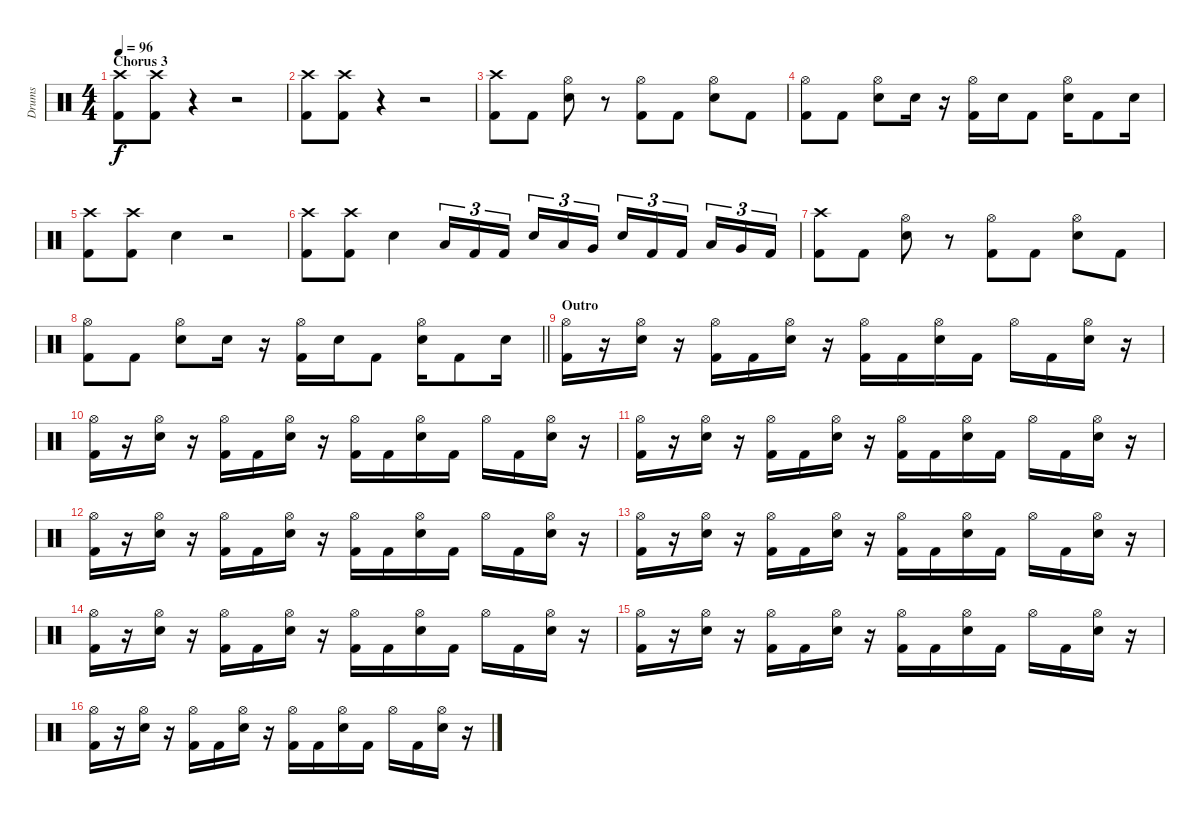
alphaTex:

\track ("Drums" "Drums") {instrument percussion}
\staff {score}
\articulation defaults
\ts (4 4)
\section ("" "Chorus 3")
\tempo 96
\clef neutral
\ks c
("Crash high (hit)" "Kick (hit) 2").8{dy f} ("Crash high (hit)" "Kick (hit) 2").8 r.4 r.2 |
("Crash high (hit)" "Kick (hit) 2").8 ("Crash high (hit)" "Kick (hit) 2").8 r.4 r.2 |
("Crash high (hit)" "Kick (hit) 2").8 "Kick (hit) 2".8 ("Hi-Hat (open)" "Electric Snare (hit)").8 r.8 ("Hi-Hat (open)" "Kick (hit) 2").8 "Kick (hit) 2".8 ("Hi-Hat (open)" "Electric Snare (hit)").8 "Kick (hit) 2".8 |
("Hi-Hat (open)" "Kick (hit) 2").8 "Kick (hit) 2".8 ("Hi-Hat (open)" "Electric Snare (hit)").8 "Electric Snare (hit)".16 r.16 ("Hi-Hat (open)" "Kick (hit) 2").16 "Electric Snare (hit)".16 "Kick (hit) 2".8 ("Hi-Hat (open)" "Electric Snare (hit)").16 "Kick (hit) 2".8 "Electric Snare (hit)".16 |
("Crash high (hit)" "Kick (hit) 2").8 ("Crash high (hit)" "Kick (hit) 2").8 "Electric Snare (hit)".4 r.2 |
("Crash high (hit)" "Kick (hit) 2").8 ("Crash high (hit)" "Kick (hit) 2").8 "Electric Snare (hit)".4 "Low Tom (hit)".16{tu (3 2)} "Kick (hit) 2".16{tu (3 2)} "Kick (hit) 2".16{tu (3 2) beam splitsecondary} "Electric Snare (hit)".16{tu (3 2)} "Low Tom (hit)".16{tu (3 2)} "Very Low Tom (hit)".16{tu (3 2)} "Electric Snare (hit)".16{tu (3 2)} "Kick (hit) 2".16{tu (3 2)} "Kick (hit) 2".16{tu (3 2) beam splitsecondary} "Low Tom (hit)".16{tu (3 2)} "Very Low Tom (hit)".16{tu (3 2)} "Kick (hit) 2".16{tu (3 2)} |
("Crash high (hit)" "Kick (hit) 2").8 "Kick (hit) 2".8 ("Hi-Hat (open)" "Electric Snare (hit)").8 r.8 ("Hi-Hat (open)" "Kick (hit) 2").8 "Kick (hit) 2".8 ("Hi-Hat (open)" "Electric Snare (hit)").8 "Kick (hit) 2".8 |
\barLineRight lightlight
("Hi-Hat (open)" "Kick (hit) 2").8 "Kick (hit) 2".8 ("Hi-Hat (open)" "Electric Snare (hit)").8 "Electric Snare (hit)".16 r.16 ("Hi-Hat (open)" "Kick (hit) 2").16 "Electric Snare (hit)".16 "Kick (hit) 2".8 ("Hi-Hat (open)" "Electric Snare (hit)").16 "Kick (hit) 2".8 "Electric Snare (hit)".16 |
\section ("" "Outro")
("Hi-Hat (open)" "Kick (hit) 2").16 r.16 ("Hi-Hat (open)" "Electric Snare (hit)").16 r.16 ("Hi-Hat (open)" "Kick (hit) 2").16 "Kick (hit) 2".16 ("Hi-Hat (open)" "Electric Snare (hit)").16 r.16 ("Hi-Hat (open)" "Kick (hit) 2").16 "Kick (hit) 2".16 ("Hi-Hat (open)" "Electric Snare (hit)").16 "Kick (hit) 2".16 "Hi-Hat (open)".16 "Kick (hit) 2".16 ("Hi-Hat (open)" "Electric Snare (hit)").16 r.16 |
("Hi-Hat (open)" "Kick (hit) 2").16 r.16 ("Hi-Hat (open)" "Electric Snare (hit)").16 r.16 ("Hi-Hat (open)" "Kick (hit) 2").16 "Kick (hit) 2".16 ("Hi-Hat (open)" "Electric Snare (hit)").16 r.16 ("Hi-Hat (open)" "Kick (hit) 2").16 "Kick (hit) 2".16 ("Hi-Hat (open)" "Electric Snare (hit)").16 "Kick (hit) 2".16 "Hi-Hat (open)".16 "Kick (hit) 2".16 ("Hi-Hat (open)" "Electric Snare (hit)").16 r.16 |
("Hi-Hat (open)" "Kick (hit) 2").16 r.16 ("Hi-Hat (open)" "Electric Snare (hit)").16 r.16 ("Hi-Hat (open)" "Kick (hit) 2").16 "Kick (hit) 2".16 ("Hi-Hat (open)" "Electric Snare (hit)").16 r.16 ("Hi-Hat (open)" "Kick (hit) 2").16 "Kick (hit) 2".16 ("Hi-Hat (open)" "Electric Snare (hit)").16 "Kick (hit) 2".16 "Hi-Hat (open)".16 "Kick (hit) 2".16 ("Hi-Hat (open)" "Electric Snare (hit)").16 r.16 |
("Hi-Hat (open)" "Kick (hit) 2").16 r.16 ("Hi-Hat (open)" "Electric Snare (hit)").16 r.16 ("Hi-Hat (open)" "Kick (hit) 2").16 "Kick (hit) 2".16 ("Hi-Hat (open)" "Electric Snare (hit)").16 r.16 ("Hi-Hat (open)" "Kick (hit) 2").16 "Kick (hit) 2".16 ("Hi-Hat (open)" "Electric Snare (hit)").16 "Kick (hit) 2".16 "Hi-Hat (open)".16 "Kick (hit) 2".16 ("Hi-Hat (open)" "Electric Snare (hit)").16 r.16 |
("Hi-Hat (open)" "Kick (hit) 2").16 r.16 ("Hi-Hat (open)" "Electric Snare (hit)").16 r.16 ("Hi-Hat (open)" "Kick (hit) 2").16 "Kick (hit) 2".16 ("Hi-Hat (open)" "Electric Snare (hit)").16 r.16 ("Hi-Hat (open)" "Kick (hit) 2").16 "Kick (hit) 2".16 ("Hi-Hat (open)" "Electric Snare (hit)").16 "Kick (hit) 2".16 "Hi-Hat (open)".16 "Kick (hit) 2".16 ("Hi-Hat (open)" "Electric Snare (hit)").16 r.16 |
("Hi-Hat (open)" "Kick (hit) 2").16 r.16 ("Hi-Hat (open)" "Electric Snare (hit)").16 r.16 ("Hi-Hat (open)" "Kick (hit) 2").16 "Kick (hit) 2".16 ("Hi-Hat (open)" "Electric Snare (hit)").16 r.16 ("Hi-Hat (open)" "Kick (hit) 2").16 "Kick (hit) 2".16 ("Hi-Hat (open)" "Electric Snare (hit)").16 "Kick (hit) 2".16 "Hi-Hat (open)".16 "Kick (hit) 2".16 ("Hi-Hat (open)" "Electric Snare (hit)").16 r.16 |
("Hi-Hat (open)" "Kick (hit) 2").16 r.16 ("Hi-Hat (open)" "Electric Snare (hit)").16 r.16 ("Hi-Hat (open)" "Kick (hit) 2").16 "Kick (hit) 2".16 ("Hi-Hat (open)" "Electric Snare (hit)").16 r.16 ("Hi-Hat (open)" "Kick (hit) 2").16 "Kick (hit) 2".16 ("Hi-Hat (open)" "Electric Snare (hit)").16 "Kick (hit) 2".16 "Hi-Hat (open)".16 "Kick (hit) 2".16 ("Hi-Hat (open)" "Electric Snare (hit)").16 r.16 |
("Hi-Hat (open)" "Kick (hit) 2").16 r.16 ("Hi-Hat (open)" "Electric Snare (hit)").16 r.16 ("Hi-Hat (open)" "Kick (hit) 2").16 "Kick (hit) 2".16 ("Hi-Hat (open)" "Electric Snare (hit)").16 r.16 ("Hi-Hat (open)" "Kick (hit) 2").16 "Kick (hit) 2".16 ("Hi-Hat (open)" "Electric Snare (hit)").16 "Kick (hit) 2".16 "Hi-Hat (open)".16 "Kick (hit) 2".16 ("Hi-Hat (open)" "Electric Snare (hit)").16 r.16
